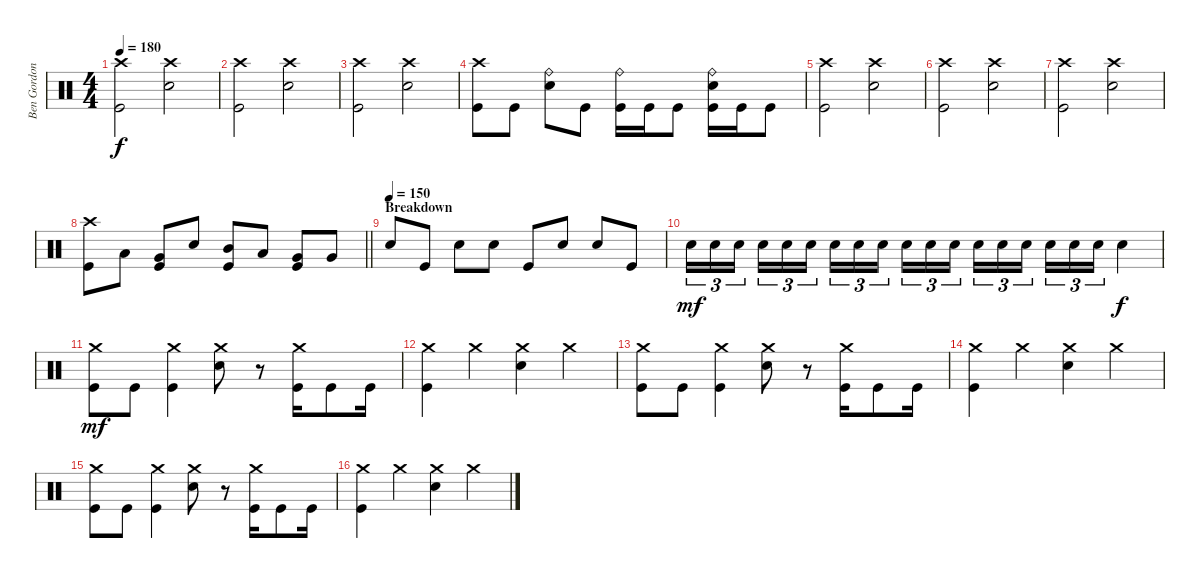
\track ("Ben Gordon" "Ben Gordon") {instrument percussion}
\staff {score}
\articulation defaults
\ts (4 4)
\tempo 180
\clef neutral
\ks c
("Crash high (hit)" "Kick (hit)").2{dy f} ("Crash high (hit)" "Electric Snare (hit)").2 |
("Crash high (hit)" "Kick (hit)").2 ("Crash high (hit)" "Electric Snare (hit)").2 |
("Crash high (hit)" "Kick (hit)").2 ("Crash high (hit)" "Electric Snare (hit)").2 |
("Crash high (hit)" "Kick (hit)").8 "Kick (hit)".8 ("Ride (bell)" "Electric Snare (hit)").8 "Kick (hit)".8 ("Ride (bell)" "Kick (hit)").16 "Kick (hit)".16 "Kick (hit)".8 ("Ride (bell)" "Electric Snare (hit)" "Kick (hit)").16 "Kick (hit)".16 "Kick (hit)".8 |
("Crash high (hit)" "Kick (hit)").2 ("Crash high (hit)" "Electric Snare (hit)").2 |
("Crash high (hit)" "Kick (hit)").2 ("Crash high (hit)" "Electric Snare (hit)").2 |
("Crash high (hit)" "Kick (hit)").2 ("Crash high (hit)" "Electric Snare (hit)").2 |
\barLineRight lightlight
("Crash high (hit)" "Kick (hit)").8 "Low Tom (hit)".8 ("Very Low Tom (hit)" "Kick (hit)").8 "Electric Snare (hit)".8 ("Mid Tom (hit)" "Kick (hit)").8 "Low Tom (hit)".8 ("Very Low Tom (hit)" "Kick (hit)").8 "Very Low Tom (hit)".8 |
\section ("" "Breakdown")
\tempo (150)
"Electric Snare (hit)".8 "Kick (hit)".8 "Electric Snare (hit)".8 "Electric Snare (hit)".8 "Kick (hit)".8 "Electric Snare (hit)".8 "Electric Snare (hit)".8 "Kick (hit)".8 |
"Electric Snare (hit)".16{tu (3 2) dy mf} "Electric Snare (hit)".16{tu (3 2)} "Electric Snare (hit)".16{tu (3 2) beam splitsecondary} "Electric Snare (hit)".16{tu (3 2)} "Electric Snare (hit)".16{tu (3 2)} "Electric Snare (hit)".16{tu (3 2)} "Electric Snare (hit)".16{tu (3 2)} "Electric Snare (hit)".16{tu (3 2)} "Electric Snare (hit)".16{tu (3 2) beam splitsecondary} "Electric Snare (hit)".16{tu (3 2)} "Electric Snare (hit)".16{tu (3 2)} "Electric Snare (hit)".16{tu (3 2)} "Electric Snare (hit)".16{tu (3 2)} "Electric Snare (hit)".16{tu (3 2)} "Electric Snare (hit)".16{tu (3 2) beam splitsecondary} "Electric Snare (hit)".16{tu (3 2)} "Electric Snare (hit)".16{tu (3 2)} "Electric Snare (hit)".16{tu (3 2)} "Electric Snare (hit)".4{dy f} |
("Crash medium (hit)" "Kick (hit)").8{dy mf} "Kick (hit)".8 ("Crash medium (hit)" "Kick (hit)").4 ("Crash medium (hit)" "Electric Snare (hit)").8 r.8 ("Crash medium (hit)" "Kick (hit)").16 "Kick (hit)".8 "Kick (hit)".16 |
("Crash medium (hit)" "Kick (hit)").4 "Crash medium (hit)".4 ("Crash medium (hit)" "Electric Snare (hit)").4 "Crash medium (hit)".4 |
("Crash medium (hit)" "Kick (hit)").8 "Kick (hit)".8 ("Crash medium (hit)" "Kick (hit)").4 ("Crash medium (hit)" "Electric Snare (hit)").8 r.8 ("Crash medium (hit)" "Kick (hit)").16 "Kick (hit)".8 "Kick (hit)".16 |
("Crash medium (hit)" "Kick (hit)").4 "Crash medium (hit)".4 ("Crash medium (hit)" "Electric Snare (hit)").4 "Crash medium (hit)".4 |
("Crash medium (hit)" "Kick (hit)").8 "Kick (hit)".8 ("Crash medium (hit)" "Kick (hit)").4 ("Crash medium (hit)" "Electric Snare (hit)").8 r.8 ("Crash medium (hit)" "Kick (hit)").16 "Kick (hit)".8 "Kick (hit)".16 |
("Crash medium (hit)" "Kick (hit)").4 "Crash medium (hit)".4 ("Crash medium (hit)" "Electric Snare (hit)").4 "Crash medium (hit)".4
